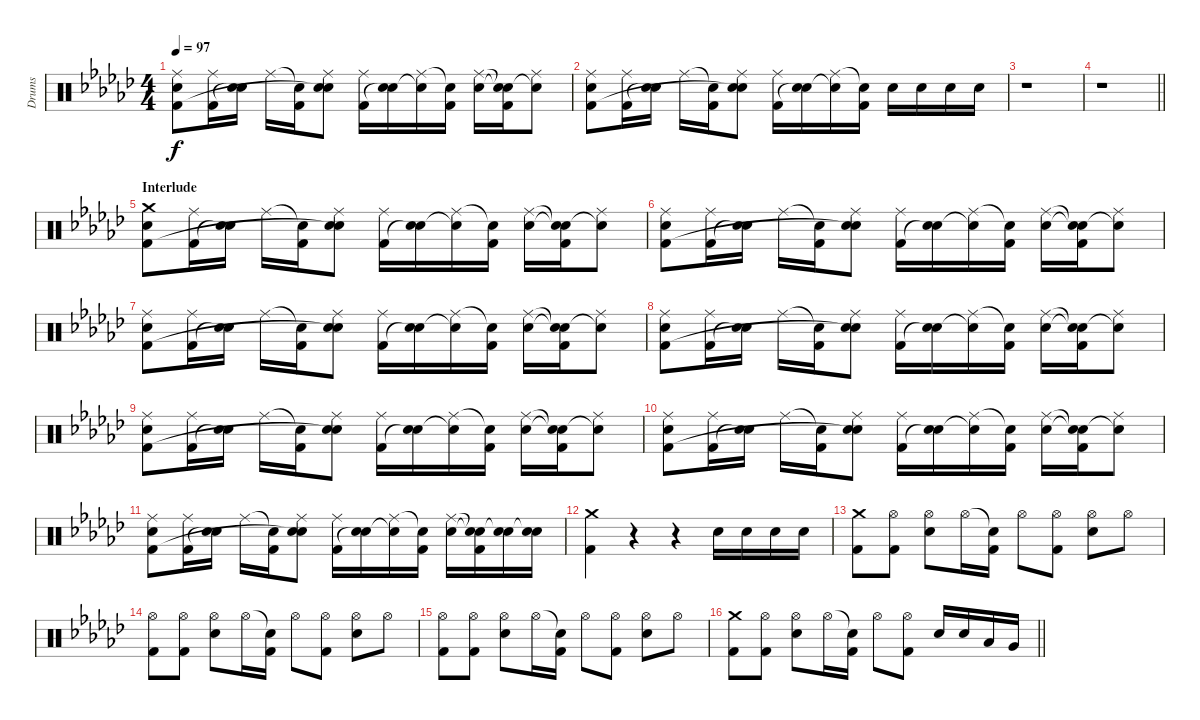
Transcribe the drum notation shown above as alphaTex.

\track ("Drums" "Drums") {instrument percussion}
\staff {score}
\articulation defaults
\ts (4 4)
\tempo 97
\clef neutral
\ks ebminor
("Ride (middle)" "Electric Snare (hit)" "Kick (hit) 2").8{dy f} ("Ride (middle)" "Kick (hit) 2").16 ("Electric Snare (hit)" "Snare (hit)"{t}).16 "Ride (middle)".16 ("Snare (hit)"{t} "Kick (hit) 2").16 ("Ride (middle)" "Electric Snare (hit)" "Snare (hit)"{t}).8 ("Ride (middle)" "Kick (hit) 2").16 ("Electric Snare (hit)" "Snare (hit)"{t}).16 ("Ride (middle)" "Snare (hit)"{t}).16 ("Snare (hit)"{t} "Kick (hit) 2").16 ("Ride (middle)" "Electric Snare (hit)").16 ("Snare (hit)"{t} "Snare (hit)"{t} "Kick (hit) 2").16 ("Ride (middle)" "Snare (hit)"{t}).8 |
("Ride (middle)" "Electric Snare (hit)" "Kick (hit) 2").8 ("Ride (middle)" "Kick (hit) 2").16 ("Electric Snare (hit)" "Snare (hit)"{t}).16 "Ride (middle)".16 ("Snare (hit)"{t} "Kick (hit) 2").16 ("Ride (middle)" "Electric Snare (hit)" "Snare (hit)"{t}).8 ("Ride (middle)" "Kick (hit) 2").16 ("Electric Snare (hit)" "Snare (hit)"{t}).16 ("Ride (middle)" "Snare (hit)"{t}).16 ("Snare (hit)"{t} "Kick (hit) 2").16 "Electric Snare (hit)".16 "Electric Snare (hit)".16 "Electric Snare (hit)".16 "Electric Snare (hit)".16 |
r.1 |
\barLineRight lightlight
r.1 |
\section ("" "Interlude")
("Crash medium (hit)" "Electric Snare (hit)" "Kick (hit) 2").8 ("Ride (middle)" "Kick (hit) 2").16 ("Electric Snare (hit)" "Snare (hit)"{t}).16 "Ride (middle)".16 ("Snare (hit)"{t} "Kick (hit) 2").16 ("Ride (middle)" "Electric Snare (hit)" "Snare (hit)"{t}).8 ("Ride (middle)" "Kick (hit) 2").16 ("Electric Snare (hit)" "Snare (hit)"{t}).16 ("Ride (middle)" "Snare (hit)"{t}).16 ("Snare (hit)"{t} "Kick (hit) 2").16 ("Ride (middle)" "Electric Snare (hit)").16 ("Snare (hit)"{t} "Snare (hit)"{t} "Kick (hit) 2").16 ("Ride (middle)" "Snare (hit)"{t}).8 |
("Ride (middle)" "Electric Snare (hit)" "Kick (hit) 2").8 ("Ride (middle)" "Kick (hit) 2").16 ("Electric Snare (hit)" "Snare (hit)"{t}).16 "Ride (middle)".16 ("Snare (hit)"{t} "Kick (hit) 2").16 ("Ride (middle)" "Electric Snare (hit)" "Snare (hit)"{t}).8 ("Ride (middle)" "Kick (hit) 2").16 ("Electric Snare (hit)" "Snare (hit)"{t}).16 ("Ride (middle)" "Snare (hit)"{t}).16 ("Snare (hit)"{t} "Kick (hit) 2").16 ("Ride (middle)" "Electric Snare (hit)").16 ("Snare (hit)"{t} "Snare (hit)"{t} "Kick (hit) 2").16 ("Ride (middle)" "Snare (hit)"{t}).8 |
("Ride (middle)" "Electric Snare (hit)" "Kick (hit) 2").8 ("Ride (middle)" "Kick (hit) 2").16 ("Electric Snare (hit)" "Snare (hit)"{t}).16 "Ride (middle)".16 ("Snare (hit)"{t} "Kick (hit) 2").16 ("Ride (middle)" "Electric Snare (hit)" "Snare (hit)"{t}).8 ("Ride (middle)" "Kick (hit) 2").16 ("Electric Snare (hit)" "Snare (hit)"{t}).16 ("Ride (middle)" "Snare (hit)"{t}).16 ("Snare (hit)"{t} "Kick (hit) 2").16 ("Ride (middle)" "Electric Snare (hit)").16 ("Snare (hit)"{t} "Snare (hit)"{t} "Kick (hit) 2").16 ("Ride (middle)" "Snare (hit)"{t}).8 |
("Ride (middle)" "Electric Snare (hit)" "Kick (hit) 2").8 ("Ride (middle)" "Kick (hit) 2").16 ("Electric Snare (hit)" "Snare (hit)"{t}).16 "Ride (middle)".16 ("Snare (hit)"{t} "Kick (hit) 2").16 ("Ride (middle)" "Electric Snare (hit)" "Snare (hit)"{t}).8 ("Ride (middle)" "Kick (hit) 2").16 ("Electric Snare (hit)" "Snare (hit)"{t}).16 ("Ride (middle)" "Snare (hit)"{t}).16 ("Snare (hit)"{t} "Kick (hit) 2").16 ("Ride (middle)" "Electric Snare (hit)").16 ("Snare (hit)"{t} "Snare (hit)"{t} "Kick (hit) 2").16 ("Ride (middle)" "Snare (hit)"{t}).8 |
("Ride (middle)" "Electric Snare (hit)" "Kick (hit) 2").8 ("Ride (middle)" "Kick (hit) 2").16 ("Electric Snare (hit)" "Snare (hit)"{t}).16 "Ride (middle)".16 ("Snare (hit)"{t} "Kick (hit) 2").16 ("Ride (middle)" "Electric Snare (hit)" "Snare (hit)"{t}).8 ("Ride (middle)" "Kick (hit) 2").16 ("Electric Snare (hit)" "Snare (hit)"{t}).16 ("Ride (middle)" "Snare (hit)"{t}).16 ("Snare (hit)"{t} "Kick (hit) 2").16 ("Ride (middle)" "Electric Snare (hit)").16 ("Snare (hit)"{t} "Snare (hit)"{t} "Kick (hit) 2").16 ("Ride (middle)" "Snare (hit)"{t}).8 |
("Ride (middle)" "Electric Snare (hit)" "Kick (hit) 2").8 ("Ride (middle)" "Kick (hit) 2").16 ("Electric Snare (hit)" "Snare (hit)"{t}).16 "Ride (middle)".16 ("Snare (hit)"{t} "Kick (hit) 2").16 ("Ride (middle)" "Electric Snare (hit)" "Snare (hit)"{t}).8 ("Ride (middle)" "Kick (hit) 2").16 ("Electric Snare (hit)" "Snare (hit)"{t}).16 ("Ride (middle)" "Snare (hit)"{t}).16 ("Snare (hit)"{t} "Kick (hit) 2").16 ("Ride (middle)" "Electric Snare (hit)").16 ("Snare (hit)"{t} "Snare (hit)"{t} "Kick (hit) 2").16 ("Ride (middle)" "Snare (hit)"{t}).8 |
("Ride (middle)" "Electric Snare (hit)" "Kick (hit) 2").8 ("Ride (middle)" "Kick (hit) 2").16 ("Electric Snare (hit)" "Snare (hit)"{t}).16 "Ride (middle)".16 ("Snare (hit)"{t} "Kick (hit) 2").16 ("Ride (middle)" "Electric Snare (hit)" "Snare (hit)"{t}).8 ("Ride (middle)" "Kick (hit) 2").16 ("Electric Snare (hit)" "Snare (hit)"{t}).16 ("Ride (middle)" "Snare (hit)"{t}).16 ("Snare (hit)"{t} "Kick (hit) 2").16 ("Ride (middle)" "Electric Snare (hit)").16 ("Snare (hit)"{t} "Snare (hit)"{t} "Kick (hit) 2").16 ("Electric Snare (hit)" "Snare (hit)"{t}).16 ("Electric Snare (hit)" "Snare (hit)"{t}).16 |
("Crash medium (hit)" "Kick (hit) 2").4 r.4 r.4 "Electric Snare (hit)".16 "Electric Snare (hit)".16 "Electric Snare (hit)".16 "Electric Snare (hit)".16 |
("Crash medium (hit)" "Kick (hit) 2").8 ("Hi-Hat (open)" "Kick (hit) 2").8 ("Hi-Hat (open)" "Electric Snare (hit)").8 "Hi-Hat (open)".16 ("Snare (hit)"{t} "Kick (hit) 2").16 "Hi-Hat (open)".8 ("Hi-Hat (open)" "Kick (hit) 2").8 ("Hi-Hat (open)" "Electric Snare (hit)").8 "Hi-Hat (open)".8 |
("Hi-Hat (open)" "Kick (hit) 2").8 ("Hi-Hat (open)" "Kick (hit) 2").8 ("Hi-Hat (open)" "Electric Snare (hit)").8 "Hi-Hat (open)".16 ("Snare (hit)"{t} "Kick (hit) 2").16 "Hi-Hat (open)".8 ("Hi-Hat (open)" "Kick (hit) 2").8 ("Hi-Hat (open)" "Electric Snare (hit)").8 "Hi-Hat (open)".8 |
("Hi-Hat (open)" "Kick (hit) 2").8 ("Hi-Hat (open)" "Kick (hit) 2").8 ("Hi-Hat (open)" "Electric Snare (hit)").8 "Hi-Hat (open)".16 ("Snare (hit)"{t} "Kick (hit) 2").16 "Hi-Hat (open)".8 ("Hi-Hat (open)" "Kick (hit) 2").8 ("Hi-Hat (open)" "Electric Snare (hit)").8 "Hi-Hat (open)".8 |
\barLineRight lightlight
("Crash medium (hit)" "Kick (hit) 2").8 ("Hi-Hat (open)" "Kick (hit) 2").8 ("Hi-Hat (open)" "Electric Snare (hit)").8 "Hi-Hat (open)".16 ("Snare (hit)"{t} "Kick (hit) 2").16 "Hi-Hat (open)".8 ("Hi-Hat (open)" "Kick (hit) 2").8 "Electric Snare (hit)".16 "Electric Snare (hit)".16 "Low Tom (hit)".16 "Very Low Tom (hit)".16
